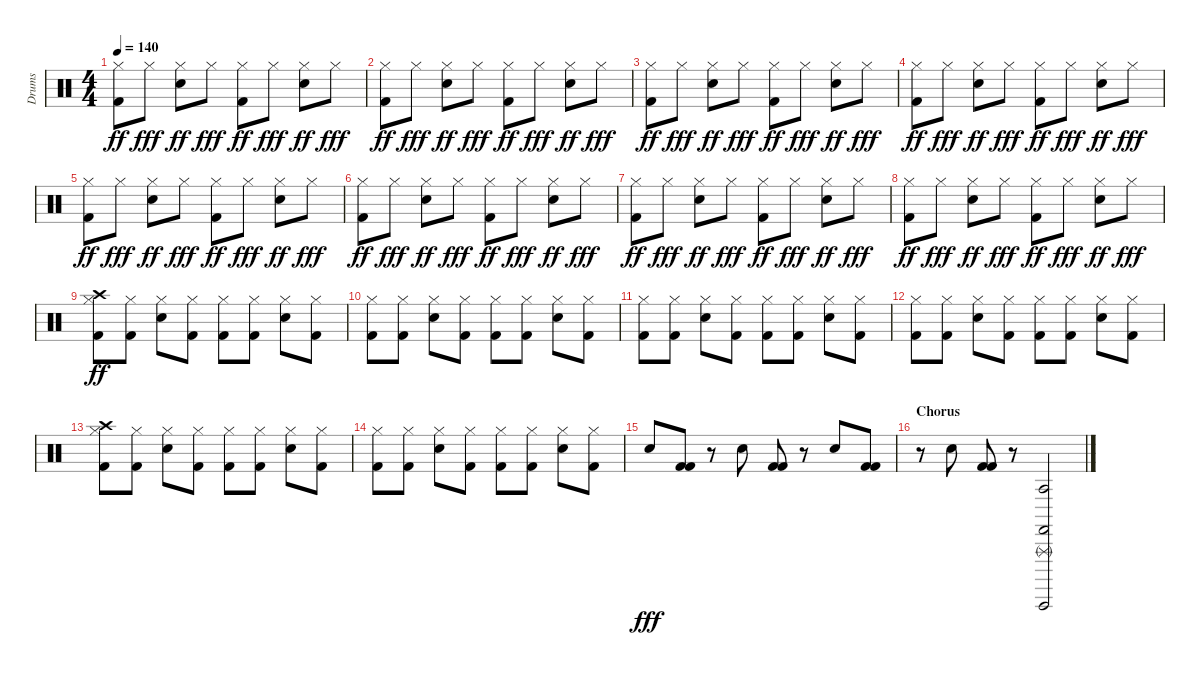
\track ("Drums" "Drums") {instrument percussion}
\staff {score}
\articulation defaults
\ts (4 4)
\tempo 140
\clef neutral
\ks c
("Hi-Hat (closed)" "Kick (hit) 2").8{dy ff} "Hi-Hat (closed)".8{dy fff} ("Hi-Hat (closed)" "Snare (hit) 2").8{dy ff} "Hi-Hat (closed)".8{dy fff} ("Hi-Hat (closed)" "Kick (hit) 2").8{dy ff} "Hi-Hat (closed)".8{dy fff} ("Hi-Hat (closed)" "Snare (hit) 2").8{dy ff} "Hi-Hat (closed)".8{dy fff} |
("Hi-Hat (closed)" "Kick (hit) 2").8{dy ff} "Hi-Hat (closed)".8{dy fff} ("Hi-Hat (closed)" "Snare (hit) 2").8{dy ff} "Hi-Hat (closed)".8{dy fff} ("Hi-Hat (closed)" "Kick (hit) 2").8{dy ff} "Hi-Hat (closed)".8{dy fff} ("Hi-Hat (closed)" "Snare (hit) 2").8{dy ff} "Hi-Hat (closed)".8{dy fff} |
("Hi-Hat (closed)" "Kick (hit) 2").8{dy ff} "Hi-Hat (closed)".8{dy fff} ("Hi-Hat (closed)" "Snare (hit) 2").8{dy ff} "Hi-Hat (closed)".8{dy fff} ("Hi-Hat (closed)" "Kick (hit) 2").8{dy ff} "Hi-Hat (closed)".8{dy fff} ("Hi-Hat (closed)" "Snare (hit) 2").8{dy ff} "Hi-Hat (closed)".8{dy fff} |
("Hi-Hat (closed)" "Kick (hit) 2").8{dy ff} "Hi-Hat (closed)".8{dy fff} ("Hi-Hat (closed)" "Snare (hit) 2").8{dy ff} "Hi-Hat (closed)".8{dy fff} ("Hi-Hat (closed)" "Kick (hit) 2").8{dy ff} "Hi-Hat (closed)".8{dy fff} ("Hi-Hat (closed)" "Snare (hit) 2").8{dy ff} "Hi-Hat (closed)".8{dy fff} |
("Hi-Hat (closed)" "Kick (hit) 2").8{dy ff} "Hi-Hat (closed)".8{dy fff} ("Hi-Hat (closed)" "Snare (hit) 2").8{dy ff} "Hi-Hat (closed)".8{dy fff} ("Hi-Hat (closed)" "Kick (hit) 2").8{dy ff} "Hi-Hat (closed)".8{dy fff} ("Hi-Hat (closed)" "Snare (hit) 2").8{dy ff} "Hi-Hat (closed)".8{dy fff} |
("Hi-Hat (closed)" "Kick (hit) 2").8{dy ff} "Hi-Hat (closed)".8{dy fff} ("Hi-Hat (closed)" "Snare (hit) 2").8{dy ff} "Hi-Hat (closed)".8{dy fff} ("Hi-Hat (closed)" "Kick (hit) 2").8{dy ff} "Hi-Hat (closed)".8{dy fff} ("Hi-Hat (closed)" "Snare (hit) 2").8{dy ff} "Hi-Hat (closed)".8{dy fff} |
("Hi-Hat (closed)" "Kick (hit) 2").8{dy ff} "Hi-Hat (closed)".8{dy fff} ("Hi-Hat (closed)" "Snare (hit) 2").8{dy ff} "Hi-Hat (closed)".8{dy fff} ("Hi-Hat (closed)" "Kick (hit) 2").8{dy ff} "Hi-Hat (closed)".8{dy fff} ("Hi-Hat (closed)" "Snare (hit) 2").8{dy ff} "Hi-Hat (closed)".8{dy fff} |
("Hi-Hat (closed)" "Kick (hit) 2").8{dy ff} "Hi-Hat (closed)".8{dy fff} ("Hi-Hat (closed)" "Snare (hit) 2").8{dy ff} "Hi-Hat (closed)".8{dy fff} ("Hi-Hat (closed)" "Kick (hit) 2").8{dy ff} "Hi-Hat (closed)".8{dy fff} ("Hi-Hat (closed)" "Snare (hit) 2").8{dy ff} "Hi-Hat (closed)".8{dy fff} |
("Crash high (hit)" "Hi-Hat (closed)" "Kick (hit) 2").8{dy ff} ("Hi-Hat (closed)" "Kick (hit) 2").8 ("Hi-Hat (closed)" "Snare (hit) 2").8 ("Hi-Hat (closed)" "Kick (hit) 2").8 ("Hi-Hat (closed)" "Kick (hit) 2").8 ("Hi-Hat (closed)" "Kick (hit) 2").8 ("Hi-Hat (closed)" "Snare (hit) 2").8 ("Hi-Hat (closed)" "Kick (hit) 2").8 |
("Hi-Hat (closed)" "Kick (hit) 2").8 ("Hi-Hat (closed)" "Kick (hit) 2").8 ("Hi-Hat (closed)" "Snare (hit) 2").8 ("Hi-Hat (closed)" "Kick (hit) 2").8 ("Hi-Hat (closed)" "Kick (hit) 2").8 ("Hi-Hat (closed)" "Kick (hit) 2").8 ("Hi-Hat (closed)" "Snare (hit) 2").8 ("Hi-Hat (closed)" "Kick (hit) 2").8 |
("Hi-Hat (closed)" "Kick (hit) 2").8 ("Hi-Hat (closed)" "Kick (hit) 2").8 ("Hi-Hat (closed)" "Snare (hit) 2").8 ("Hi-Hat (closed)" "Kick (hit) 2").8 ("Hi-Hat (closed)" "Kick (hit) 2").8 ("Hi-Hat (closed)" "Kick (hit) 2").8 ("Hi-Hat (closed)" "Snare (hit) 2").8 ("Hi-Hat (closed)" "Kick (hit) 2").8 |
("Hi-Hat (closed)" "Kick (hit) 2").8 ("Hi-Hat (closed)" "Kick (hit) 2").8 ("Hi-Hat (closed)" "Snare (hit) 2").8 ("Hi-Hat (closed)" "Kick (hit) 2").8 ("Hi-Hat (closed)" "Kick (hit) 2").8 ("Hi-Hat (closed)" "Kick (hit) 2").8 ("Hi-Hat (closed)" "Snare (hit) 2").8 ("Hi-Hat (closed)" "Kick (hit) 2").8 |
("Crash high (hit)" "Hi-Hat (closed)" "Kick (hit) 2").8 ("Hi-Hat (closed)" "Kick (hit) 2").8 ("Hi-Hat (closed)" "Snare (hit) 2").8 ("Hi-Hat (closed)" "Kick (hit) 2").8 ("Hi-Hat (closed)" "Kick (hit) 2").8 ("Hi-Hat (closed)" "Kick (hit) 2").8 ("Hi-Hat (closed)" "Snare (hit) 2").8 ("Hi-Hat (closed)" "Kick (hit) 2").8 |
("Hi-Hat (closed)" "Kick (hit) 2").8 ("Hi-Hat (closed)" "Kick (hit) 2").8 ("Hi-Hat (closed)" "Snare (hit) 2").8 ("Hi-Hat (closed)" "Kick (hit) 2").8 ("Hi-Hat (closed)" "Kick (hit) 2").8 ("Hi-Hat (closed)" "Kick (hit) 2").8 ("Hi-Hat (closed)" "Snare (hit) 2").8 ("Hi-Hat (closed)" "Kick (hit) 2").8 |
"Snare (hit) 2".8{dy fff volume 16} ("Kick (hit) 2" "Kick (hit) 2").8 r.8 "Snare (hit) 2".8 ("Kick (hit) 2" "Kick (hit) 2").8 r.8 "Snare (hit) 2".8 ("Kick (hit) 2" "Kick (hit) 2").8 |
\section ("" "Chorus")
r.8 "Snare (hit) 2".8 ("Kick (hit) 2" "Kick (hit) 2").8 r.8 ("Castanets (hit)" "Triangle (rnute)" "Agogo tow (hit)" "Guiro (hit)").2
